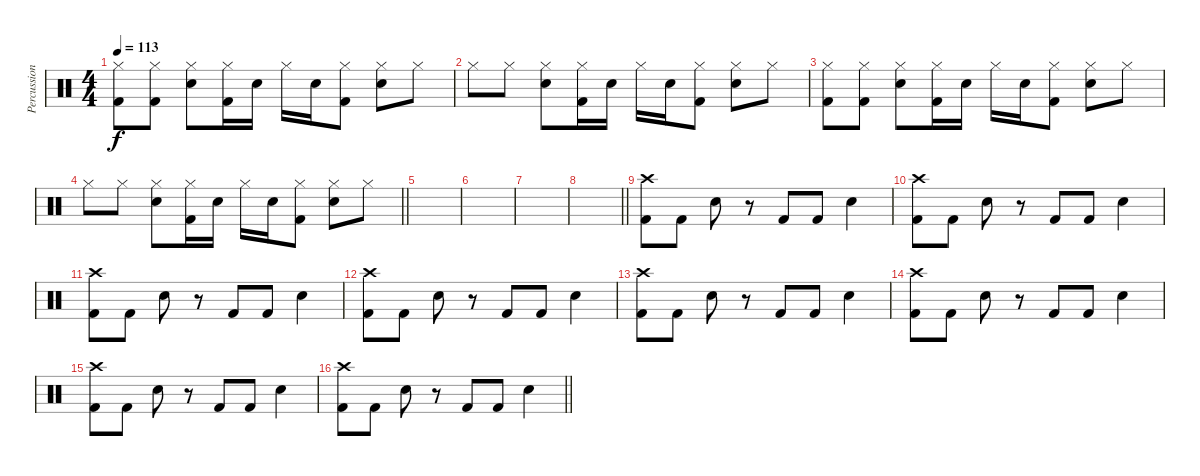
\track ("Percussion" "Percussion") {instrument percussion}
\staff {score}
\articulation defaults
\ts (4 4)
\tempo 113
\clef neutral
\ks c
("Hi-Hat (closed)" "Kick (hit) 2").8{dy f} ("Hi-Hat (closed)" "Kick (hit) 2").8 ("Hi-Hat (closed)" "Snare (hit) 2").8 ("Hi-Hat (closed)" "Kick (hit) 2").16 "Snare (hit) 2".16 "Hi-Hat (closed)".16 "Snare (hit) 2".16 ("Hi-Hat (closed)" "Kick (hit) 2").8 ("Hi-Hat (closed)" "Snare (hit) 2").8 "Hi-Hat (closed)".8 |
"Hi-Hat (closed)".8 "Hi-Hat (closed)".8 ("Hi-Hat (closed)" "Snare (hit) 2").8 ("Hi-Hat (closed)" "Kick (hit) 2").16 "Snare (hit) 2".16 "Hi-Hat (closed)".16 "Snare (hit) 2".16 ("Hi-Hat (closed)" "Kick (hit) 2").8 ("Hi-Hat (closed)" "Snare (hit) 2").8 "Hi-Hat (closed)".8 |
("Hi-Hat (closed)" "Kick (hit) 2").8 ("Hi-Hat (closed)" "Kick (hit) 2").8 ("Hi-Hat (closed)" "Snare (hit) 2").8 ("Hi-Hat (closed)" "Kick (hit) 2").16 "Snare (hit) 2".16 "Hi-Hat (closed)".16 "Snare (hit) 2".16 ("Hi-Hat (closed)" "Kick (hit) 2").8 ("Hi-Hat (closed)" "Snare (hit) 2").8 "Hi-Hat (closed)".8 |
\barLineRight lightlight "Hi-Hat (closed)".8 "Hi-Hat (closed)".8
("Hi-Hat (closed)" "Snare (hit) 2").8 ("Hi-Hat (closed)" "Kick (hit) 2").16 "Snare (hit) 2".16 "Hi-Hat (closed)".16 "Snare (hit) 2".16 ("Hi-Hat (closed)" "Kick (hit) 2").8 ("Hi-Hat (closed)" "Snare (hit) 2").8 "Hi-Hat (closed)".8 |
|
|
|
\barLineRight lightlight
|
("Crash high (hit)" "Kick (hit) 2").8 "Kick (hit) 2".8 "Snare (hit) 2".8 r.8 "Kick (hit) 2".8 "Kick (hit) 2".8 "Snare (hit) 2".4 |
("Crash high (hit)" "Kick (hit) 2").8 "Kick (hit) 2".8 "Snare (hit) 2".8 r.8 "Kick (hit) 2".8 "Kick (hit) 2".8 "Snare (hit) 2".4 |
("Crash high (hit)" "Kick (hit) 2").8 "Kick (hit) 2".8 "Snare (hit) 2".8 r.8 "Kick (hit) 2".8 "Kick (hit) 2".8 "Snare (hit) 2".4 |
("Crash high (hit)" "Kick (hit) 2").8 "Kick (hit) 2".8 "Snare (hit) 2".8 r.8 "Kick (hit) 2".8 "Kick (hit) 2".8 "Snare (hit) 2".4 |
("Crash high (hit)" "Kick (hit) 2").8 "Kick (hit) 2".8 "Snare (hit) 2".8 r.8 "Kick (hit) 2".8 "Kick (hit) 2".8 "Snare (hit) 2".4 |
("Crash high (hit)" "Kick (hit) 2").8 "Kick (hit) 2".8 "Snare (hit) 2".8 r.8 "Kick (hit) 2".8 "Kick (hit) 2".8 "Snare (hit) 2".4 |
("Crash high (hit)" "Kick (hit) 2").8 "Kick (hit) 2".8 "Snare (hit) 2".8 r.8 "Kick (hit) 2".8 "Kick (hit) 2".8 "Snare (hit) 2".4 |
\barLineRight lightlight
("Crash high (hit)" "Kick (hit) 2").8 "Kick (hit) 2".8 "Snare (hit) 2".8 r.8 "Kick (hit) 2".8 "Kick (hit) 2".8 "Snare (hit) 2".4
